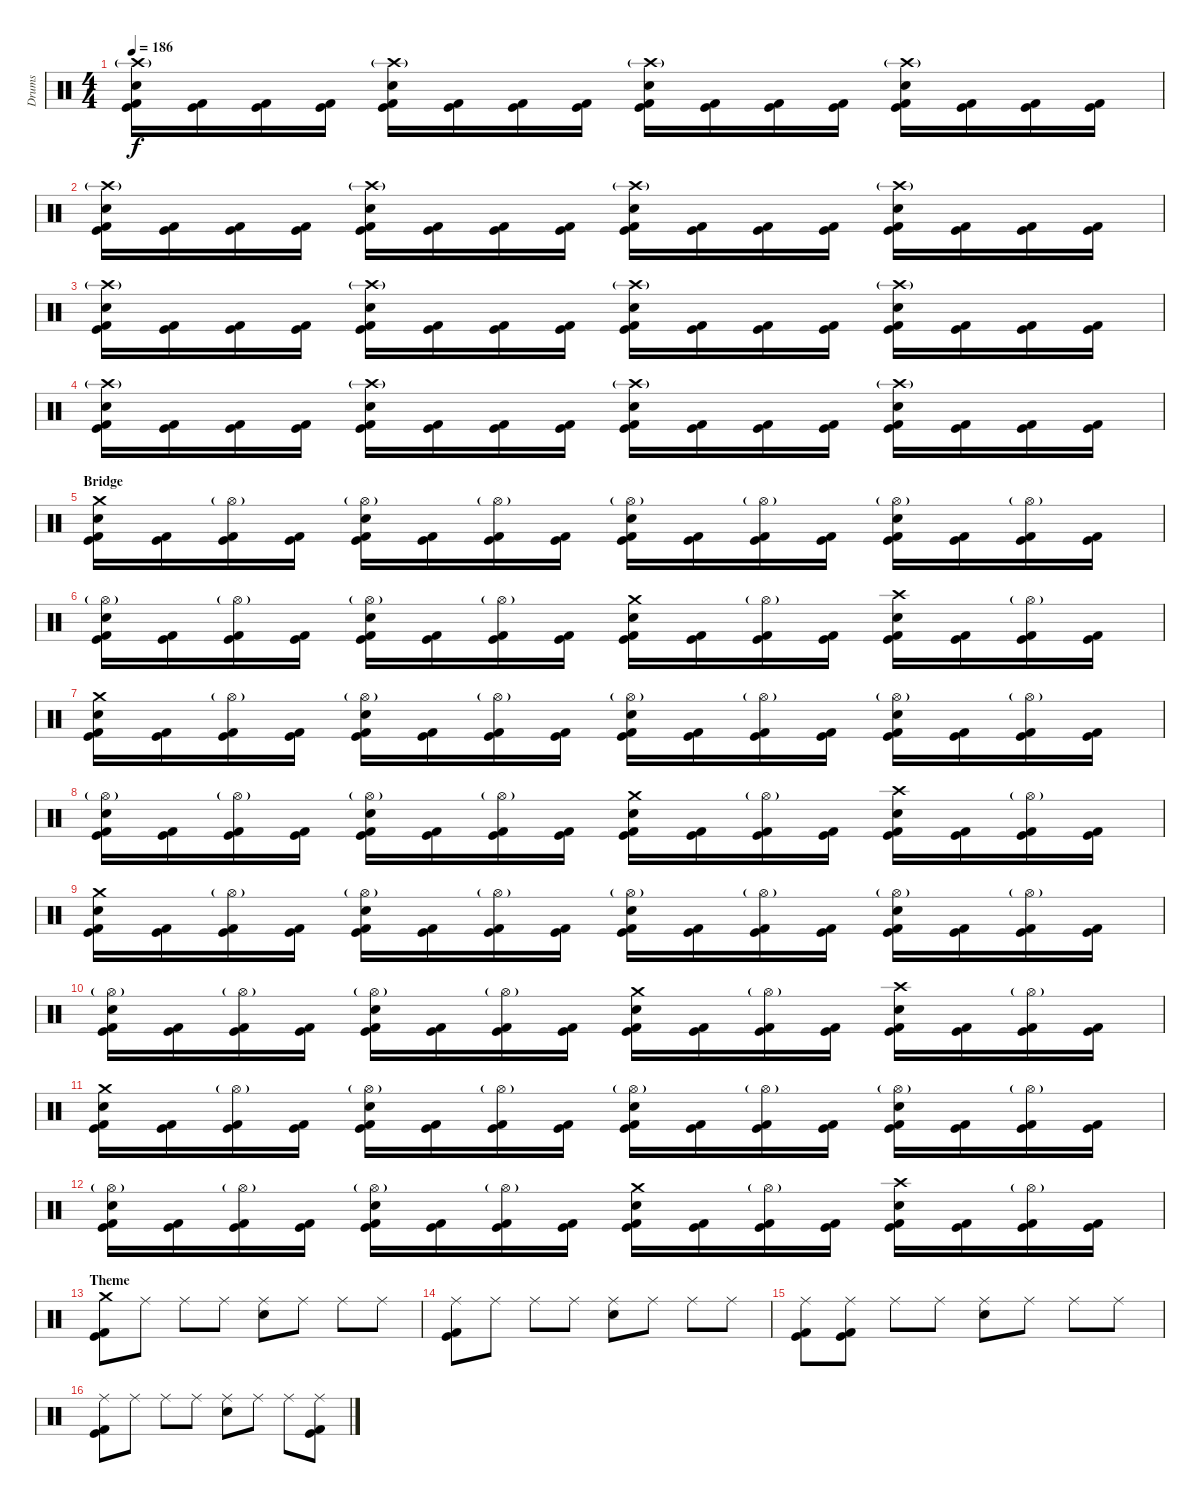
\track ("Drums" "Drums") {instrument percussion}
\staff {score}
\articulation defaults
\ts (4 4)
\tempo 186
\clef neutral
\ks c
("Crash high (hit)"{g} "Electric Snare (hit)" "Kick (hit)" "Kick (hit) 2").16{dy f} ("Kick (hit)" "Kick (hit) 2").16 ("Kick (hit)" "Kick (hit) 2").16 ("Kick (hit)" "Kick (hit) 2").16 ("Crash high (hit)"{g} "Electric Snare (hit)" "Kick (hit)" "Kick (hit) 2").16 ("Kick (hit)" "Kick (hit) 2").16 ("Kick (hit)" "Kick (hit) 2").16 ("Kick (hit)" "Kick (hit) 2").16 ("Crash high (hit)"{g} "Electric Snare (hit)" "Kick (hit)" "Kick (hit) 2").16 ("Kick (hit)" "Kick (hit) 2").16 ("Kick (hit)" "Kick (hit) 2").16 ("Kick (hit)" "Kick (hit) 2").16 ("Crash high (hit)"{g} "Electric Snare (hit)" "Kick (hit)" "Kick (hit) 2").16 ("Kick (hit)" "Kick (hit) 2").16 ("Kick (hit)" "Kick (hit) 2").16 ("Kick (hit)" "Kick (hit) 2").16 |
("Crash high (hit)"{g} "Electric Snare (hit)" "Kick (hit)" "Kick (hit) 2").16 ("Kick (hit)" "Kick (hit) 2").16 ("Kick (hit)" "Kick (hit) 2").16 ("Kick (hit)" "Kick (hit) 2").16 ("Crash high (hit)"{g} "Electric Snare (hit)" "Kick (hit)" "Kick (hit) 2").16 ("Kick (hit)" "Kick (hit) 2").16 ("Kick (hit)" "Kick (hit) 2").16 ("Kick (hit)" "Kick (hit) 2").16 ("Crash high (hit)"{g} "Electric Snare (hit)" "Kick (hit)" "Kick (hit) 2").16 ("Kick (hit)" "Kick (hit) 2").16 ("Kick (hit)" "Kick (hit) 2").16 ("Kick (hit)" "Kick (hit) 2").16 ("Crash high (hit)"{g} "Electric Snare (hit)" "Kick (hit)" "Kick (hit) 2").16 ("Kick (hit)" "Kick (hit) 2").16 ("Kick (hit)" "Kick (hit) 2").16 ("Kick (hit)" "Kick (hit) 2").16 |
("Crash high (hit)"{g} "Electric Snare (hit)" "Kick (hit)" "Kick (hit) 2").16 ("Kick (hit)" "Kick (hit) 2").16 ("Kick (hit)" "Kick (hit) 2").16 ("Kick (hit)" "Kick (hit) 2").16 ("Crash high (hit)"{g} "Electric Snare (hit)" "Kick (hit)" "Kick (hit) 2").16 ("Kick (hit)" "Kick (hit) 2").16 ("Kick (hit)" "Kick (hit) 2").16 ("Kick (hit)" "Kick (hit) 2").16 ("Crash high (hit)"{g} "Electric Snare (hit)" "Kick (hit)" "Kick (hit) 2").16 ("Kick (hit)" "Kick (hit) 2").16 ("Kick (hit)" "Kick (hit) 2").16 ("Kick (hit)" "Kick (hit) 2").16 ("Crash high (hit)"{g} "Electric Snare (hit)" "Kick (hit)" "Kick (hit) 2").16 ("Kick (hit)" "Kick (hit) 2").16 ("Kick (hit)" "Kick (hit) 2").16 ("Kick (hit)" "Kick (hit) 2").16 |
("Crash high (hit)"{g} "Electric Snare (hit)" "Kick (hit)" "Kick (hit) 2").16 ("Kick (hit)" "Kick (hit) 2").16 ("Kick (hit)" "Kick (hit) 2").16 ("Kick (hit)" "Kick (hit) 2").16 ("Crash high (hit)"{g} "Electric Snare (hit)" "Kick (hit)" "Kick (hit) 2").16 ("Kick (hit)" "Kick (hit) 2").16 ("Kick (hit)" "Kick (hit) 2").16 ("Kick (hit)" "Kick (hit) 2").16 ("Crash high (hit)"{g} "Electric Snare (hit)" "Kick (hit)" "Kick (hit) 2").16 ("Kick (hit)" "Kick (hit) 2").16 ("Kick (hit)" "Kick (hit) 2").16 ("Kick (hit)" "Kick (hit) 2").16 ("Crash high (hit)"{g} "Electric Snare (hit)" "Kick (hit)" "Kick (hit) 2").16 ("Kick (hit)" "Kick (hit) 2").16 ("Kick (hit)" "Kick (hit) 2").16 ("Kick (hit)" "Kick (hit) 2").16 |
\section ("" "Bridge")
("Crash medium (hit)" "Electric Snare (hit)" "Kick (hit)" "Kick (hit) 2").16 ("Kick (hit)" "Kick (hit) 2").16 ("Hi-Hat (open)"{g} "Kick (hit)" "Kick (hit) 2").16 ("Kick (hit)" "Kick (hit) 2").16 ("Hi-Hat (open)"{g} "Electric Snare (hit)" "Kick (hit)" "Kick (hit) 2").16 ("Kick (hit)" "Kick (hit) 2").16 ("Hi-Hat (open)"{g} "Kick (hit)" "Kick (hit) 2").16 ("Kick (hit)" "Kick (hit) 2").16 ("Hi-Hat (open)"{g} "Electric Snare (hit)" "Kick (hit)" "Kick (hit) 2").16 ("Kick (hit)" "Kick (hit) 2").16 ("Hi-Hat (open)"{g} "Kick (hit)" "Kick (hit) 2").16 ("Kick (hit)" "Kick (hit) 2").16 ("Hi-Hat (open)"{g} "Electric Snare (hit)" "Kick (hit)" "Kick (hit) 2").16 ("Kick (hit)" "Kick (hit) 2").16 ("Hi-Hat (open)"{g} "Kick (hit)" "Kick (hit) 2").16 ("Kick (hit)" "Kick (hit) 2").16 |
("Hi-Hat (open)"{g} "Electric Snare (hit)" "Kick (hit)" "Kick (hit) 2").16 ("Kick (hit)" "Kick (hit) 2").16 ("Hi-Hat (open)"{g} "Kick (hit)" "Kick (hit) 2").16 ("Kick (hit)" "Kick (hit) 2").16 ("Hi-Hat (open)"{g} "Electric Snare (hit)" "Kick (hit)" "Kick (hit) 2").16 ("Kick (hit)" "Kick (hit) 2").16 ("Hi-Hat (open)"{g} "Kick (hit)" "Kick (hit) 2").16 ("Kick (hit)" "Kick (hit) 2").16 ("Crash medium (hit)" "Electric Snare (hit)" "Kick (hit)" "Kick (hit) 2").16 ("Kick (hit)" "Kick (hit) 2").16 ("Hi-Hat (open)"{g} "Kick (hit)" "Kick (hit) 2").16 ("Kick (hit)" "Kick (hit) 2").16 ("Crash high (hit)" "Electric Snare (hit)" "Kick (hit)" "Kick (hit) 2").16 ("Kick (hit)" "Kick (hit) 2").16 ("Hi-Hat (open)"{g} "Kick (hit)" "Kick (hit) 2").16 ("Kick (hit)" "Kick (hit) 2").16 |
("Crash medium (hit)" "Electric Snare (hit)" "Kick (hit)" "Kick (hit) 2").16 ("Kick (hit)" "Kick (hit) 2").16 ("Hi-Hat (open)"{g} "Kick (hit)" "Kick (hit) 2").16 ("Kick (hit)" "Kick (hit) 2").16 ("Hi-Hat (open)"{g} "Electric Snare (hit)" "Kick (hit)" "Kick (hit) 2").16 ("Kick (hit)" "Kick (hit) 2").16 ("Hi-Hat (open)"{g} "Kick (hit)" "Kick (hit) 2").16 ("Kick (hit)" "Kick (hit) 2").16 ("Hi-Hat (open)"{g} "Electric Snare (hit)" "Kick (hit)" "Kick (hit) 2").16 ("Kick (hit)" "Kick (hit) 2").16 ("Hi-Hat (open)"{g} "Kick (hit)" "Kick (hit) 2").16 ("Kick (hit)" "Kick (hit) 2").16 ("Hi-Hat (open)"{g} "Electric Snare (hit)" "Kick (hit)" "Kick (hit) 2").16 ("Kick (hit)" "Kick (hit) 2").16 ("Hi-Hat (open)"{g} "Kick (hit)" "Kick (hit) 2").16 ("Kick (hit)" "Kick (hit) 2").16 |
("Hi-Hat (open)"{g} "Electric Snare (hit)" "Kick (hit)" "Kick (hit) 2").16 ("Kick (hit)" "Kick (hit) 2").16 ("Hi-Hat (open)"{g} "Kick (hit)" "Kick (hit) 2").16 ("Kick (hit)" "Kick (hit) 2").16 ("Hi-Hat (open)"{g} "Electric Snare (hit)" "Kick (hit)" "Kick (hit) 2").16 ("Kick (hit)" "Kick (hit) 2").16 ("Hi-Hat (open)"{g} "Kick (hit)" "Kick (hit) 2").16 ("Kick (hit)" "Kick (hit) 2").16 ("Crash medium (hit)" "Electric Snare (hit)" "Kick (hit)" "Kick (hit) 2").16 ("Kick (hit)" "Kick (hit) 2").16 ("Hi-Hat (open)"{g} "Kick (hit)" "Kick (hit) 2").16 ("Kick (hit)" "Kick (hit) 2").16 ("Crash high (hit)" "Electric Snare (hit)" "Kick (hit)" "Kick (hit) 2").16 ("Kick (hit)" "Kick (hit) 2").16 ("Hi-Hat (open)"{g} "Kick (hit)" "Kick (hit) 2").16 ("Kick (hit)" "Kick (hit) 2").16 |
("Crash medium (hit)" "Electric Snare (hit)" "Kick (hit)" "Kick (hit) 2").16 ("Kick (hit)" "Kick (hit) 2").16 ("Hi-Hat (open)"{g} "Kick (hit)" "Kick (hit) 2").16 ("Kick (hit)" "Kick (hit) 2").16 ("Hi-Hat (open)"{g} "Electric Snare (hit)" "Kick (hit)" "Kick (hit) 2").16 ("Kick (hit)" "Kick (hit) 2").16 ("Hi-Hat (open)"{g} "Kick (hit)" "Kick (hit) 2").16 ("Kick (hit)" "Kick (hit) 2").16 ("Hi-Hat (open)"{g} "Electric Snare (hit)" "Kick (hit)" "Kick (hit) 2").16 ("Kick (hit)" "Kick (hit) 2").16 ("Hi-Hat (open)"{g} "Kick (hit)" "Kick (hit) 2").16 ("Kick (hit)" "Kick (hit) 2").16 ("Hi-Hat (open)"{g} "Electric Snare (hit)" "Kick (hit)" "Kick (hit) 2").16 ("Kick (hit)" "Kick (hit) 2").16 ("Hi-Hat (open)"{g} "Kick (hit)" "Kick (hit) 2").16 ("Kick (hit)" "Kick (hit) 2").16 |
("Hi-Hat (open)"{g} "Electric Snare (hit)" "Kick (hit)" "Kick (hit) 2").16 ("Kick (hit)" "Kick (hit) 2").16 ("Hi-Hat (open)"{g} "Kick (hit)" "Kick (hit) 2").16 ("Kick (hit)" "Kick (hit) 2").16 ("Hi-Hat (open)"{g} "Electric Snare (hit)" "Kick (hit)" "Kick (hit) 2").16 ("Kick (hit)" "Kick (hit) 2").16 ("Hi-Hat (open)"{g} "Kick (hit)" "Kick (hit) 2").16 ("Kick (hit)" "Kick (hit) 2").16 ("Crash medium (hit)" "Electric Snare (hit)" "Kick (hit)" "Kick (hit) 2").16 ("Kick (hit)" "Kick (hit) 2").16 ("Hi-Hat (open)"{g} "Kick (hit)" "Kick (hit) 2").16 ("Kick (hit)" "Kick (hit) 2").16 ("Crash high (hit)" "Electric Snare (hit)" "Kick (hit)" "Kick (hit) 2").16 ("Kick (hit)" "Kick (hit) 2").16 ("Hi-Hat (open)"{g} "Kick (hit)" "Kick (hit) 2").16 ("Kick (hit)" "Kick (hit) 2").16 |
("Crash medium (hit)" "Electric Snare (hit)" "Kick (hit)" "Kick (hit) 2").16 ("Kick (hit)" "Kick (hit) 2").16 ("Hi-Hat (open)"{g} "Kick (hit)" "Kick (hit) 2").16 ("Kick (hit)" "Kick (hit) 2").16 ("Hi-Hat (open)"{g} "Electric Snare (hit)" "Kick (hit)" "Kick (hit) 2").16 ("Kick (hit)" "Kick (hit) 2").16 ("Hi-Hat (open)"{g} "Kick (hit)" "Kick (hit) 2").16 ("Kick (hit)" "Kick (hit) 2").16 ("Hi-Hat (open)"{g} "Electric Snare (hit)" "Kick (hit)" "Kick (hit) 2").16 ("Kick (hit)" "Kick (hit) 2").16 ("Hi-Hat (open)"{g} "Kick (hit)" "Kick (hit) 2").16 ("Kick (hit)" "Kick (hit) 2").16 ("Hi-Hat (open)"{g} "Electric Snare (hit)" "Kick (hit)" "Kick (hit) 2").16 ("Kick (hit)" "Kick (hit) 2").16 ("Hi-Hat (open)"{g} "Kick (hit)" "Kick (hit) 2").16 ("Kick (hit)" "Kick (hit) 2").16 |
("Hi-Hat (open)"{g} "Electric Snare (hit)" "Kick (hit)" "Kick (hit) 2").16 ("Kick (hit)" "Kick (hit) 2").16 ("Hi-Hat (open)"{g} "Kick (hit)" "Kick (hit) 2").16 ("Kick (hit)" "Kick (hit) 2").16 ("Hi-Hat (open)"{g} "Electric Snare (hit)" "Kick (hit)" "Kick (hit) 2").16 ("Kick (hit)" "Kick (hit) 2").16 ("Hi-Hat (open)"{g} "Kick (hit)" "Kick (hit) 2").16 ("Kick (hit)" "Kick (hit) 2").16 ("Crash medium (hit)" "Electric Snare (hit)" "Kick (hit)" "Kick (hit) 2").16 ("Kick (hit)" "Kick (hit) 2").16 ("Hi-Hat (open)"{g} "Kick (hit)" "Kick (hit) 2").16 ("Kick (hit)" "Kick (hit) 2").16 ("Crash high (hit)" "Electric Snare (hit)" "Kick (hit)" "Kick (hit) 2").16 ("Kick (hit)" "Kick (hit) 2").16 ("Hi-Hat (open)"{g} "Kick (hit)" "Kick (hit) 2").16 ("Kick (hit)" "Kick (hit) 2").16 |
\section ("" "Theme")
("Crash medium (hit)" "Kick (hit)" "Kick (hit) 2").8 "Ride (middle)".8 "Ride (middle)".8 "Ride (middle)".8 ("Ride (middle)" "Electric Snare (hit)").8 "Ride (middle)".8 "Ride (middle)".8 "Ride (middle)".8 |
("Ride (middle)" "Kick (hit)" "Kick (hit) 2").8 "Ride (middle)".8 "Ride (middle)".8 "Ride (middle)".8 ("Ride (middle)" "Electric Snare (hit)").8 "Ride (middle)".8 "Ride (middle)".8 "Ride (middle)".8 |
("Ride (middle)" "Kick (hit)" "Kick (hit) 2").8 ("Ride (middle)" "Kick (hit)" "Kick (hit) 2").8 "Ride (middle)".8 "Ride (middle)".8 ("Ride (middle)" "Electric Snare (hit)").8 "Ride (middle)".8 "Ride (middle)".8 "Ride (middle)".8 |
("Ride (middle)" "Kick (hit)" "Kick (hit) 2").8 "Ride (middle)".8 "Ride (middle)".8 "Ride (middle)".8 ("Ride (middle)" "Electric Snare (hit)").8 "Ride (middle)".8 "Ride (middle)".8 ("Ride (middle)" "Kick (hit)" "Kick (hit) 2").8
